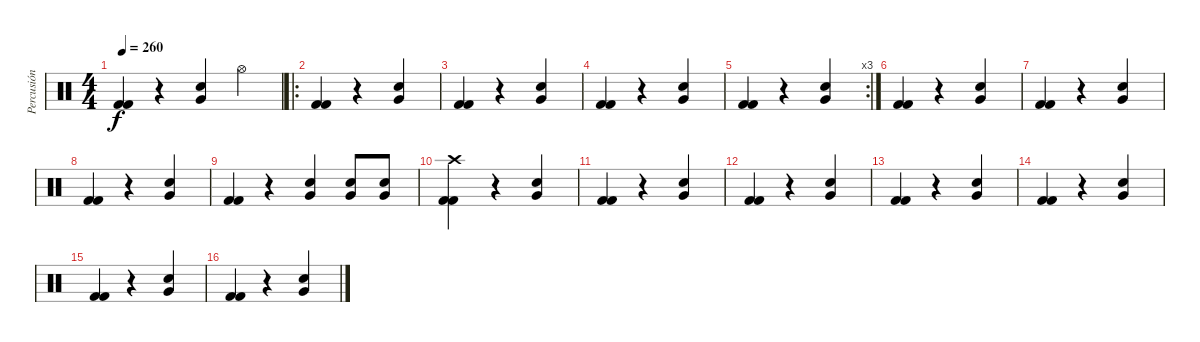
\track ("Percusión" "Percusión") {instrument percussion}
\staff {score}
\articulation defaults
\ts (4 4)
\tempo 260
\clef neutral
\ks c
("Kick (hit) 2" "Kick (hit) 2").4{dy f} r.4 ("Very Low Tom (hit)" "Electric Snare (hit)").4 "Hi-Hat (open)".4 |
\ro
("Kick (hit) 2" "Kick (hit) 2").4 r.4 ("Very Low Tom (hit)" "Electric Snare (hit)").4 |
("Kick (hit) 2" "Kick (hit) 2").4 r.4 ("Very Low Tom (hit)" "Electric Snare (hit)").4 |
("Kick (hit) 2" "Kick (hit) 2").4 r.4 ("Very Low Tom (hit)" "Electric Snare (hit)").4 |
\rc 3
("Kick (hit) 2" "Kick (hit) 2").4 r.4 ("Very Low Tom (hit)" "Electric Snare (hit)").4 |
("Kick (hit) 2" "Kick (hit) 2").4 r.4 ("Very Low Tom (hit)" "Electric Snare (hit)").4 |
("Kick (hit) 2" "Kick (hit) 2").4 r.4 ("Very Low Tom (hit)" "Electric Snare (hit)").4 |
("Kick (hit) 2" "Kick (hit) 2").4 r.4 ("Very Low Tom (hit)" "Electric Snare (hit)").4 |
("Kick (hit) 2" "Kick (hit) 2").4 r.4 ("Very Low Tom (hit)" "Electric Snare (hit)").4 ("Very Low Tom (hit)" "Electric Snare (hit)").8 ("Very Low Tom (hit)" "Electric Snare (hit)").8 |
("Crash high (hit)" "Kick (hit) 2" "Kick (hit) 2").4 r.4 ("Very Low Tom (hit)" "Electric Snare (hit)").4 |
("Kick (hit) 2" "Kick (hit) 2").4 r.4 ("Very Low Tom (hit)" "Electric Snare (hit)").4 |
("Kick (hit) 2" "Kick (hit) 2").4 r.4 ("Very Low Tom (hit)" "Electric Snare (hit)").4 |
("Kick (hit) 2" "Kick (hit) 2").4 r.4 ("Very Low Tom (hit)" "Electric Snare (hit)").4 |
("Kick (hit) 2" "Kick (hit) 2").4 r.4 ("Very Low Tom (hit)" "Electric Snare (hit)").4 |
("Kick (hit) 2" "Kick (hit) 2").4 r.4 ("Very Low Tom (hit)" "Electric Snare (hit)").4 |
("Kick (hit) 2" "Kick (hit) 2").4 r.4 ("Very Low Tom (hit)" "Electric Snare (hit)").4
